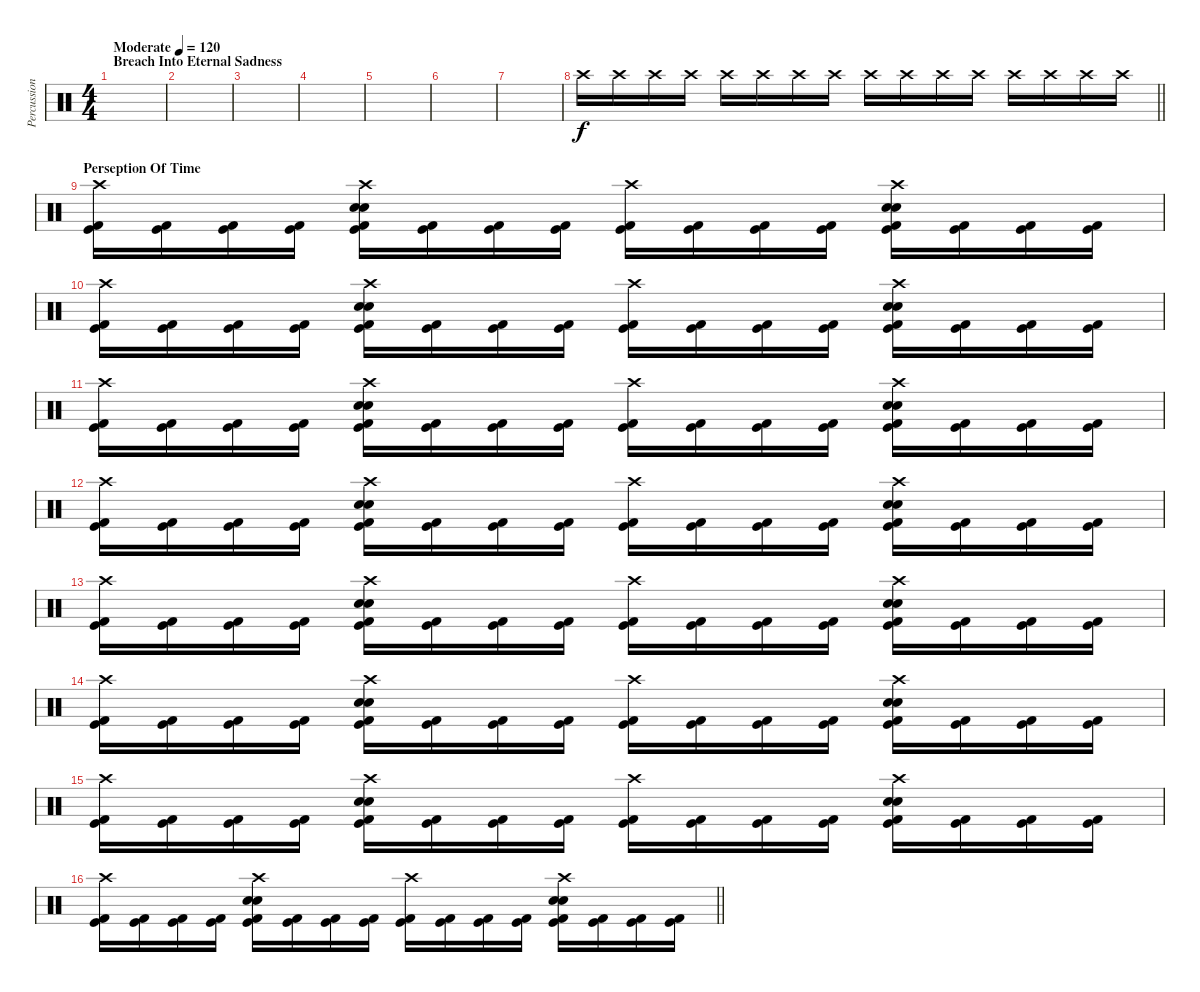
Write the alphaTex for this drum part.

\track ("Percussion" "Percussion") {instrument percussion}
\staff {score}
\articulation defaults
\ts (4 4)
\section ("" "Breach Into Eternal Sadness")
\tempo (120 "Moderate")
\clef neutral
\ks c
|
|
|
|
|
|
|
\barLineRight lightlight "Crash high (hit)".16 "Crash high (hit)".16 "Crash high (hit)".16 "Crash high (hit)".16 "Crash high (hit)".16 "Crash high (hit)".16 "Crash high (hit)".16 "Crash high (hit)".16 "Crash high (hit)".16 "Crash high (hit)".16 "Crash high (hit)".16 "Crash high (hit)".16 "Crash high (hit)".16 "Crash high (hit)".16 "Crash high (hit)".16 "Crash high (hit)".16
|
\section ("" "Perseption Of Time")
("Kick (hit)" "Kick (hit) 2" "Crash high (hit)").16 ("Kick (hit)" "Kick (hit) 2").16 ("Kick (hit)" "Kick (hit) 2").16 ("Kick (hit)" "Kick (hit) 2").16 ("Kick (hit)" "Kick (hit) 2" "Crash high (hit)" "Electric Snare (hit)" "Electric Snare (hit)").16 ("Kick (hit)" "Kick (hit) 2").16 ("Kick (hit)" "Kick (hit) 2").16 ("Kick (hit)" "Kick (hit) 2").16 ("Kick (hit)" "Kick (hit) 2" "Crash high (hit)").16 ("Kick (hit)" "Kick (hit) 2").16 ("Kick (hit)" "Kick (hit) 2").16 ("Kick (hit)" "Kick (hit) 2").16 ("Kick (hit)" "Kick (hit) 2" "Crash high (hit)" "Electric Snare (hit)" "Electric Snare (hit)").16 ("Kick (hit)" "Kick (hit) 2").16 ("Kick (hit)" "Kick (hit) 2").16 ("Kick (hit)" "Kick (hit) 2").16 |
("Kick (hit)" "Kick (hit) 2" "Crash high (hit)").16 ("Kick (hit)" "Kick (hit) 2").16 ("Kick (hit)" "Kick (hit) 2").16 ("Kick (hit)" "Kick (hit) 2").16 ("Kick (hit)" "Kick (hit) 2" "Crash high (hit)" "Electric Snare (hit)" "Electric Snare (hit)").16 ("Kick (hit)" "Kick (hit) 2").16 ("Kick (hit)" "Kick (hit) 2").16 ("Kick (hit)" "Kick (hit) 2").16 ("Kick (hit)" "Kick (hit) 2" "Crash high (hit)").16 ("Kick (hit)" "Kick (hit) 2").16 ("Kick (hit)" "Kick (hit) 2").16 ("Kick (hit)" "Kick (hit) 2").16 ("Kick (hit)" "Kick (hit) 2" "Crash high (hit)" "Electric Snare (hit)" "Electric Snare (hit)").16 ("Kick (hit)" "Kick (hit) 2").16 ("Kick (hit)" "Kick (hit) 2").16 ("Kick (hit)" "Kick (hit) 2").16 |
("Kick (hit)" "Kick (hit) 2" "Crash high (hit)").16 ("Kick (hit)" "Kick (hit) 2").16 ("Kick (hit)" "Kick (hit) 2").16 ("Kick (hit)" "Kick (hit) 2").16 ("Kick (hit)" "Kick (hit) 2" "Crash high (hit)" "Electric Snare (hit)" "Electric Snare (hit)").16 ("Kick (hit)" "Kick (hit) 2").16 ("Kick (hit)" "Kick (hit) 2").16 ("Kick (hit)" "Kick (hit) 2").16 ("Kick (hit)" "Kick (hit) 2" "Crash high (hit)").16 ("Kick (hit)" "Kick (hit) 2").16 ("Kick (hit)" "Kick (hit) 2").16 ("Kick (hit)" "Kick (hit) 2").16 ("Kick (hit)" "Kick (hit) 2" "Crash high (hit)" "Electric Snare (hit)" "Electric Snare (hit)").16 ("Kick (hit)" "Kick (hit) 2").16 ("Kick (hit)" "Kick (hit) 2").16 ("Kick (hit)" "Kick (hit) 2").16 |
("Kick (hit)" "Kick (hit) 2" "Crash high (hit)").16 ("Kick (hit)" "Kick (hit) 2").16 ("Kick (hit)" "Kick (hit) 2").16 ("Kick (hit)" "Kick (hit) 2").16 ("Kick (hit)" "Kick (hit) 2" "Crash high (hit)" "Electric Snare (hit)" "Electric Snare (hit)").16 ("Kick (hit)" "Kick (hit) 2").16 ("Kick (hit)" "Kick (hit) 2").16 ("Kick (hit)" "Kick (hit) 2").16 ("Kick (hit)" "Kick (hit) 2" "Crash high (hit)").16 ("Kick (hit)" "Kick (hit) 2").16 ("Kick (hit)" "Kick (hit) 2").16 ("Kick (hit)" "Kick (hit) 2").16 ("Kick (hit)" "Kick (hit) 2" "Crash high (hit)" "Electric Snare (hit)" "Electric Snare (hit)").16 ("Kick (hit)" "Kick (hit) 2").16 ("Kick (hit)" "Kick (hit) 2").16 ("Kick (hit)" "Kick (hit) 2").16 |
("Kick (hit)" "Kick (hit) 2" "Crash high (hit)").16 ("Kick (hit)" "Kick (hit) 2").16 ("Kick (hit)" "Kick (hit) 2").16 ("Kick (hit)" "Kick (hit) 2").16 ("Kick (hit)" "Kick (hit) 2" "Crash high (hit)" "Electric Snare (hit)" "Electric Snare (hit)").16 ("Kick (hit)" "Kick (hit) 2").16 ("Kick (hit)" "Kick (hit) 2").16 ("Kick (hit)" "Kick (hit) 2").16 ("Kick (hit)" "Kick (hit) 2" "Crash high (hit)").16 ("Kick (hit)" "Kick (hit) 2").16 ("Kick (hit)" "Kick (hit) 2").16 ("Kick (hit)" "Kick (hit) 2").16 ("Kick (hit)" "Kick (hit) 2" "Crash high (hit)" "Electric Snare (hit)" "Electric Snare (hit)").16 ("Kick (hit)" "Kick (hit) 2").16 ("Kick (hit)" "Kick (hit) 2").16 ("Kick (hit)" "Kick (hit) 2").16 |
("Kick (hit)" "Kick (hit) 2" "Crash high (hit)").16 ("Kick (hit)" "Kick (hit) 2").16 ("Kick (hit)" "Kick (hit) 2").16 ("Kick (hit)" "Kick (hit) 2").16 ("Kick (hit)" "Kick (hit) 2" "Crash high (hit)" "Electric Snare (hit)" "Electric Snare (hit)").16 ("Kick (hit)" "Kick (hit) 2").16 ("Kick (hit)" "Kick (hit) 2").16 ("Kick (hit)" "Kick (hit) 2").16 ("Kick (hit)" "Kick (hit) 2" "Crash high (hit)").16 ("Kick (hit)" "Kick (hit) 2").16 ("Kick (hit)" "Kick (hit) 2").16 ("Kick (hit)" "Kick (hit) 2").16 ("Kick (hit)" "Kick (hit) 2" "Crash high (hit)" "Electric Snare (hit)" "Electric Snare (hit)").16 ("Kick (hit)" "Kick (hit) 2").16 ("Kick (hit)" "Kick (hit) 2").16 ("Kick (hit)" "Kick (hit) 2").16 |
("Kick (hit)" "Kick (hit) 2" "Crash high (hit)").16 ("Kick (hit)" "Kick (hit) 2").16 ("Kick (hit)" "Kick (hit) 2").16 ("Kick (hit)" "Kick (hit) 2").16 ("Kick (hit)" "Kick (hit) 2" "Crash high (hit)" "Electric Snare (hit)" "Electric Snare (hit)").16 ("Kick (hit)" "Kick (hit) 2").16 ("Kick (hit)" "Kick (hit) 2").16 ("Kick (hit)" "Kick (hit) 2").16 ("Kick (hit)" "Kick (hit) 2" "Crash high (hit)").16 ("Kick (hit)" "Kick (hit) 2").16 ("Kick (hit)" "Kick (hit) 2").16 ("Kick (hit)" "Kick (hit) 2").16 ("Kick (hit)" "Kick (hit) 2" "Crash high (hit)" "Electric Snare (hit)" "Electric Snare (hit)").16 ("Kick (hit)" "Kick (hit) 2").16 ("Kick (hit)" "Kick (hit) 2").16 ("Kick (hit)" "Kick (hit) 2").16 |
\barLineRight lightlight
("Kick (hit)" "Kick (hit) 2" "Crash high (hit)").16 ("Kick (hit)" "Kick (hit) 2").16 ("Kick (hit)" "Kick (hit) 2").16 ("Kick (hit)" "Kick (hit) 2").16 ("Kick (hit)" "Kick (hit) 2" "Crash high (hit)" "Electric Snare (hit)" "Electric Snare (hit)").16 ("Kick (hit)" "Kick (hit) 2").16 ("Kick (hit)" "Kick (hit) 2").16 ("Kick (hit)" "Kick (hit) 2").16 ("Kick (hit)" "Kick (hit) 2" "Crash high (hit)").16 ("Kick (hit)" "Kick (hit) 2").16 ("Kick (hit)" "Kick (hit) 2").16 ("Kick (hit)" "Kick (hit) 2").16 ("Kick (hit)" "Kick (hit) 2" "Crash high (hit)" "Electric Snare (hit)" "Electric Snare (hit)").16 ("Kick (hit)" "Kick (hit) 2").16 ("Kick (hit)" "Kick (hit) 2").16 ("Kick (hit)" "Kick (hit) 2").16
